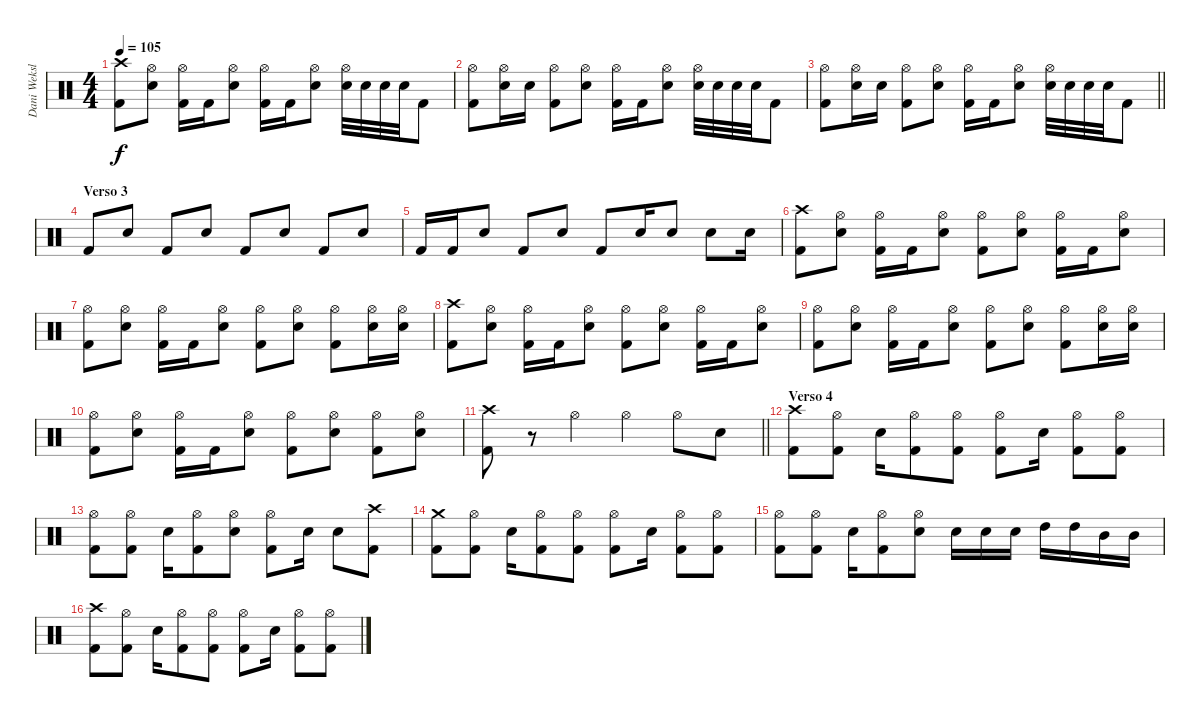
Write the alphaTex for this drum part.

\track ("Dani Weksler" "Dani Weksl") {instrument percussion}
\staff {score}
\articulation defaults
\ts (4 4)
\tempo 105
\clef neutral
\ks c
("Crash high (hit)" "Kick (hit) 2").8{dy f} ("Hi-Hat (open)" "Electric Snare (hit)").8 ("Hi-Hat (open)" "Kick (hit) 2").16 "Kick (hit) 2".16 ("Hi-Hat (open)" "Electric Snare (hit)").8 ("Hi-Hat (open)" "Kick (hit) 2").16 "Kick (hit) 2".16 ("Hi-Hat (open)" "Electric Snare (hit)").8 ("Hi-Hat (open)" "Electric Snare (hit)").32 "Electric Snare (hit)".32 "Electric Snare (hit)".32 "Electric Snare (hit)".32 "Kick (hit) 2".8 |
("Hi-Hat (open)" "Kick (hit) 2").8 ("Hi-Hat (open)" "Electric Snare (hit)").16 "Electric Snare (hit)".16 ("Hi-Hat (open)" "Kick (hit) 2").8 ("Hi-Hat (open)" "Electric Snare (hit)").8 ("Hi-Hat (open)" "Kick (hit) 2").16 "Kick (hit) 2".16 ("Hi-Hat (open)" "Electric Snare (hit)").8 ("Hi-Hat (open)" "Electric Snare (hit)").32 "Electric Snare (hit)".32 "Electric Snare (hit)".32 "Electric Snare (hit)".32 "Kick (hit) 2".8 |
\barLineRight lightlight
("Hi-Hat (open)" "Kick (hit) 2").8 ("Hi-Hat (open)" "Electric Snare (hit)").16 "Electric Snare (hit)".16 ("Hi-Hat (open)" "Kick (hit) 2").8 ("Hi-Hat (open)" "Electric Snare (hit)").8 ("Hi-Hat (open)" "Kick (hit) 2").16 "Kick (hit) 2".16 ("Hi-Hat (open)" "Electric Snare (hit)").8 ("Hi-Hat (open)" "Electric Snare (hit)").32 "Electric Snare (hit)".32 "Electric Snare (hit)".32 "Electric Snare (hit)".32 "Kick (hit) 2".8 |
\section ("" "Verso 3")
"Kick (hit) 2".8 "Electric Snare (hit)".8 "Kick (hit) 2".8 "Electric Snare (hit)".8 "Kick (hit) 2".8 "Electric Snare (hit)".8 "Kick (hit) 2".8 "Electric Snare (hit)".8 |
"Kick (hit) 2".16 "Kick (hit) 2".16 "Electric Snare (hit)".8 "Kick (hit) 2".8 "Electric Snare (hit)".8 "Kick (hit) 2".8 "Electric Snare (hit)".16 "Electric Snare (hit)".8 "Electric Snare (hit)".8 "Electric Snare (hit)".16 |
("Crash high (hit)" "Kick (hit) 2").8 ("Hi-Hat (open)" "Electric Snare (hit)").8 ("Hi-Hat (open)" "Kick (hit) 2").16 "Kick (hit) 2".16 ("Hi-Hat (open)" "Electric Snare (hit)").8 ("Hi-Hat (open)" "Kick (hit) 2").8 ("Hi-Hat (open)" "Electric Snare (hit)").8 ("Hi-Hat (open)" "Kick (hit) 2").16 "Kick (hit) 2".16 ("Hi-Hat (open)" "Electric Snare (hit)").8 |
("Hi-Hat (open)" "Kick (hit) 2").8 ("Hi-Hat (open)" "Electric Snare (hit)").8 ("Hi-Hat (open)" "Kick (hit) 2").16 "Kick (hit) 2".16 ("Hi-Hat (open)" "Electric Snare (hit)").8 ("Hi-Hat (open)" "Kick (hit) 2").8 ("Hi-Hat (open)" "Electric Snare (hit)").8 ("Hi-Hat (open)" "Kick (hit) 2").8 ("Hi-Hat (open)" "Electric Snare (hit)").16 ("Hi-Hat (open)" "Electric Snare (hit)").16 |
("Crash high (hit)" "Kick (hit) 2").8 ("Hi-Hat (open)" "Electric Snare (hit)").8 ("Hi-Hat (open)" "Kick (hit) 2").16 "Kick (hit) 2".16 ("Hi-Hat (open)" "Electric Snare (hit)").8 ("Hi-Hat (open)" "Kick (hit) 2").8 ("Hi-Hat (open)" "Electric Snare (hit)").8 ("Hi-Hat (open)" "Kick (hit) 2").16 "Kick (hit) 2".16 ("Hi-Hat (open)" "Electric Snare (hit)").8 |
("Hi-Hat (open)" "Kick (hit) 2").8 ("Hi-Hat (open)" "Electric Snare (hit)").8 ("Hi-Hat (open)" "Kick (hit) 2").16 "Kick (hit) 2".16 ("Hi-Hat (open)" "Electric Snare (hit)").8 ("Hi-Hat (open)" "Kick (hit) 2").8 ("Hi-Hat (open)" "Electric Snare (hit)").8 ("Hi-Hat (open)" "Kick (hit) 2").8 ("Hi-Hat (open)" "Electric Snare (hit)").16 ("Hi-Hat (open)" "Electric Snare (hit)").16 |
("Hi-Hat (open)" "Kick (hit) 2").8 ("Hi-Hat (open)" "Electric Snare (hit)").8 ("Hi-Hat (open)" "Kick (hit) 2").16 "Kick (hit) 2".16 ("Hi-Hat (open)" "Electric Snare (hit)").8 ("Hi-Hat (open)" "Kick (hit) 2").8 ("Hi-Hat (open)" "Electric Snare (hit)").8 ("Hi-Hat (open)" "Kick (hit) 2").8 ("Hi-Hat (open)" "Electric Snare (hit)").8 |
\barLineRight lightlight
("Crash high (hit)" "Kick (hit) 2").8 r.8 "Hi-Hat (open)".4 "Hi-Hat (open)".4 "Hi-Hat (open)".8 "Electric Snare (hit)".8 |
\section ("" "Verso 4")
("Crash high (hit)" "Kick (hit) 2").8 ("Hi-Hat (open)" "Kick (hit) 2").8 "Electric Snare (hit)".16 ("Hi-Hat (open)" "Kick (hit) 2").8 ("Hi-Hat (open)" "Kick (hit) 2").8 ("Hi-Hat (open)" "Kick (hit) 2").8 "Electric Snare (hit)".16 ("Hi-Hat (open)" "Kick (hit) 2").8 ("Hi-Hat (open)" "Kick (hit) 2").8 |
("Hi-Hat (open)" "Kick (hit) 2").8 ("Hi-Hat (open)" "Kick (hit) 2").8 "Electric Snare (hit)".16 ("Hi-Hat (open)" "Kick (hit) 2").8 ("Hi-Hat (open)" "Electric Snare (hit)").8 ("Hi-Hat (open)" "Kick (hit) 2").8 "Electric Snare (hit)".16 "Electric Snare (hit)".8 ("Crash high (hit)" "Kick (hit) 2").8 |
("Crash medium (hit)" "Kick (hit) 2").8 ("Hi-Hat (open)" "Kick (hit) 2").8 "Electric Snare (hit)".16 ("Hi-Hat (open)" "Kick (hit) 2").8 ("Hi-Hat (open)" "Kick (hit) 2").8 ("Hi-Hat (open)" "Kick (hit) 2").8 "Electric Snare (hit)".16 ("Hi-Hat (open)" "Kick (hit) 2").8 ("Hi-Hat (open)" "Kick (hit) 2").8 |
("Hi-Hat (open)" "Kick (hit) 2").8 ("Hi-Hat (open)" "Kick (hit) 2").8 "Electric Snare (hit)".16 ("Hi-Hat (open)" "Kick (hit) 2").8 ("Hi-Hat (open)" "Electric Snare (hit)").8 "Electric Snare (hit)".16 "Electric Snare (hit)".16 "Electric Snare (hit)".16 "High Tom (hit)".16 "High Tom (hit)".16 "Mid Tom (hit)".16 "Mid Tom (hit)".16 |
("Crash high (hit)" "Kick (hit) 2").8 ("Hi-Hat (open)" "Kick (hit) 2").8 "Electric Snare (hit)".16 ("Hi-Hat (open)" "Kick (hit) 2").8 ("Hi-Hat (open)" "Kick (hit) 2").8 ("Hi-Hat (open)" "Kick (hit) 2").8 "Electric Snare (hit)".16 ("Hi-Hat (open)" "Kick (hit) 2").8 ("Hi-Hat (open)" "Kick (hit) 2").8
